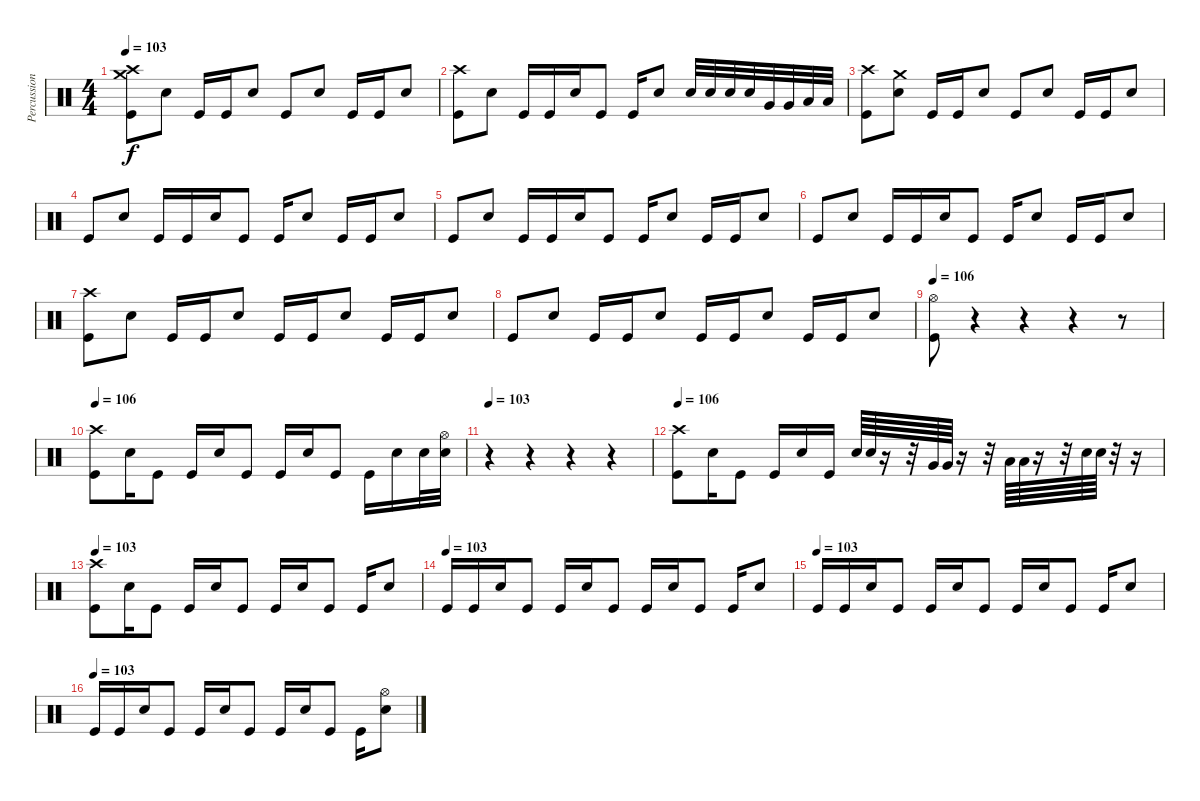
\track ("Percussion" "Percussion") {instrument percussion}
\staff {score}
\articulation defaults
\ts (4 4)
\tempo 103
\clef neutral
\ks c
("Crash high (hit)" "Crash medium (hit)" "Kick (hit)").8{dy f} "Electric Snare (hit)".8 "Kick (hit)".16 "Kick (hit)".16 "Electric Snare (hit)".8 "Kick (hit)".8 "Electric Snare (hit)".8 "Kick (hit)".16 "Kick (hit)".16 "Electric Snare (hit)".8 |
("Crash high (hit)" "Kick (hit)").8 "Electric Snare (hit)".8 "Kick (hit)".16 "Kick (hit)".16 "Electric Snare (hit)".16 "Kick (hit)".8 "Kick (hit)".16 "Electric Snare (hit)".8 "Electric Snare (hit)".32 "Electric Snare (hit)".32 "Electric Snare (hit)".32 "Electric Snare (hit)".32 "Very Low Tom (hit)".32 "Very Low Tom (hit)".32 "Low Floor Tom (hit)".32 "Low Floor Tom (hit)".32 |
("Crash high (hit)" "Kick (hit)").8 ("Crash medium (hit)" "Electric Snare (hit)").8 "Kick (hit)".16 "Kick (hit)".16 "Electric Snare (hit)".8 "Kick (hit)".8 "Electric Snare (hit)".8 "Kick (hit)".16 "Kick (hit)".16 "Electric Snare (hit)".8 |
"Kick (hit)".8 "Electric Snare (hit)".8 "Kick (hit)".16 "Kick (hit)".16 "Electric Snare (hit)".16 "Kick (hit)".8 "Kick (hit)".16 "Electric Snare (hit)".8 "Kick (hit)".16 "Kick (hit)".16 "Electric Snare (hit)".8 |
"Kick (hit)".8 "Electric Snare (hit)".8 "Kick (hit)".16 "Kick (hit)".16 "Electric Snare (hit)".16 "Kick (hit)".8 "Kick (hit)".16 "Electric Snare (hit)".8 "Kick (hit)".16 "Kick (hit)".16 "Electric Snare (hit)".8 |
"Kick (hit)".8 "Electric Snare (hit)".8 "Kick (hit)".16 "Kick (hit)".16 "Electric Snare (hit)".16 "Kick (hit)".8 "Kick (hit)".16 "Electric Snare (hit)".8 "Kick (hit)".16 "Kick (hit)".16 "Electric Snare (hit)".8 |
("Crash high (hit)" "Kick (hit)").8 "Electric Snare (hit)".8 "Kick (hit)".16 "Kick (hit)".16 "Electric Snare (hit)".8 "Kick (hit)".16 "Kick (hit)".16 "Electric Snare (hit)".8 "Kick (hit)".16 "Kick (hit)".16 "Electric Snare (hit)".8 |
"Kick (hit)".8 "Electric Snare (hit)".8 "Kick (hit)".16 "Kick (hit)".16 "Electric Snare (hit)".8 "Kick (hit)".16 "Kick (hit)".16 "Electric Snare (hit)".8 "Kick (hit)".16 "Kick (hit)".16 "Electric Snare (hit)".8 |
\tempo 106
("Hi-Hat (open)" "Kick (hit)").8 r.4 r.4 r.4 r.8 |
\tempo 106
("Crash high (hit)" "Kick (hit)").8 "Electric Snare (hit)".16 "Kick (hit)".8 "Kick (hit)".16 "Electric Snare (hit)".16 "Kick (hit)".8 "Kick (hit)".16 "Electric Snare (hit)".16 "Kick (hit)".8 "Kick (hit)".16 "Electric Snare (hit)".16 "Electric Snare (hit)".32 ("Electric Snare (hit)" "Hi-Hat (open)").32 |
\tempo 103
r.4 r.4 r.4 r.4 |
\tempo 106
("Crash high (hit)" "Kick (hit)").8 "Electric Snare (hit)".16 "Kick (hit)".8 "Kick (hit)".16 "Electric Snare (hit)".16 "Kick (hit)".16 "Electric Snare (hit)".64 "Electric Snare (hit)".64 r.16 r.32 "Very Low Tom (hit)".64 "Very Low Tom (hit)".64 r.16 r.32 "Low Floor Tom (hit)".64 "Low Floor Tom (hit)".64 r.16 r.32 "Electric Snare (hit)".64 "Electric Snare (hit)".64 r.32 r.16 |
\tempo 103
("Crash high (hit)" "Kick (hit)").8 "Electric Snare (hit)".16 "Kick (hit)".8 "Kick (hit)".16 "Electric Snare (hit)".16 "Kick (hit)".8 "Kick (hit)".16 "Electric Snare (hit)".16 "Kick (hit)".8 "Kick (hit)".16 "Electric Snare (hit)".8 |
\tempo (103)
"Kick (hit)".16 "Kick (hit)".16 "Electric Snare (hit)".16 "Kick (hit)".8 "Kick (hit)".16 "Electric Snare (hit)".16 "Kick (hit)".8 "Kick (hit)".16 "Electric Snare (hit)".16 "Kick (hit)".8 "Kick (hit)".16 "Electric Snare (hit)".8 |
\tempo (103)
"Kick (hit)".16 "Kick (hit)".16 "Electric Snare (hit)".16 "Kick (hit)".8 "Kick (hit)".16 "Electric Snare (hit)".16 "Kick (hit)".8 "Kick (hit)".16 "Electric Snare (hit)".16 "Kick (hit)".8 "Kick (hit)".16 "Electric Snare (hit)".8 |
\tempo (103)
"Kick (hit)".16 "Kick (hit)".16 "Electric Snare (hit)".16 "Kick (hit)".8 "Kick (hit)".16 "Electric Snare (hit)".16 "Kick (hit)".8 "Kick (hit)".16 "Electric Snare (hit)".16 "Kick (hit)".8 "Kick (hit)".16 ("Electric Snare (hit)" "Hi-Hat (open)").8
